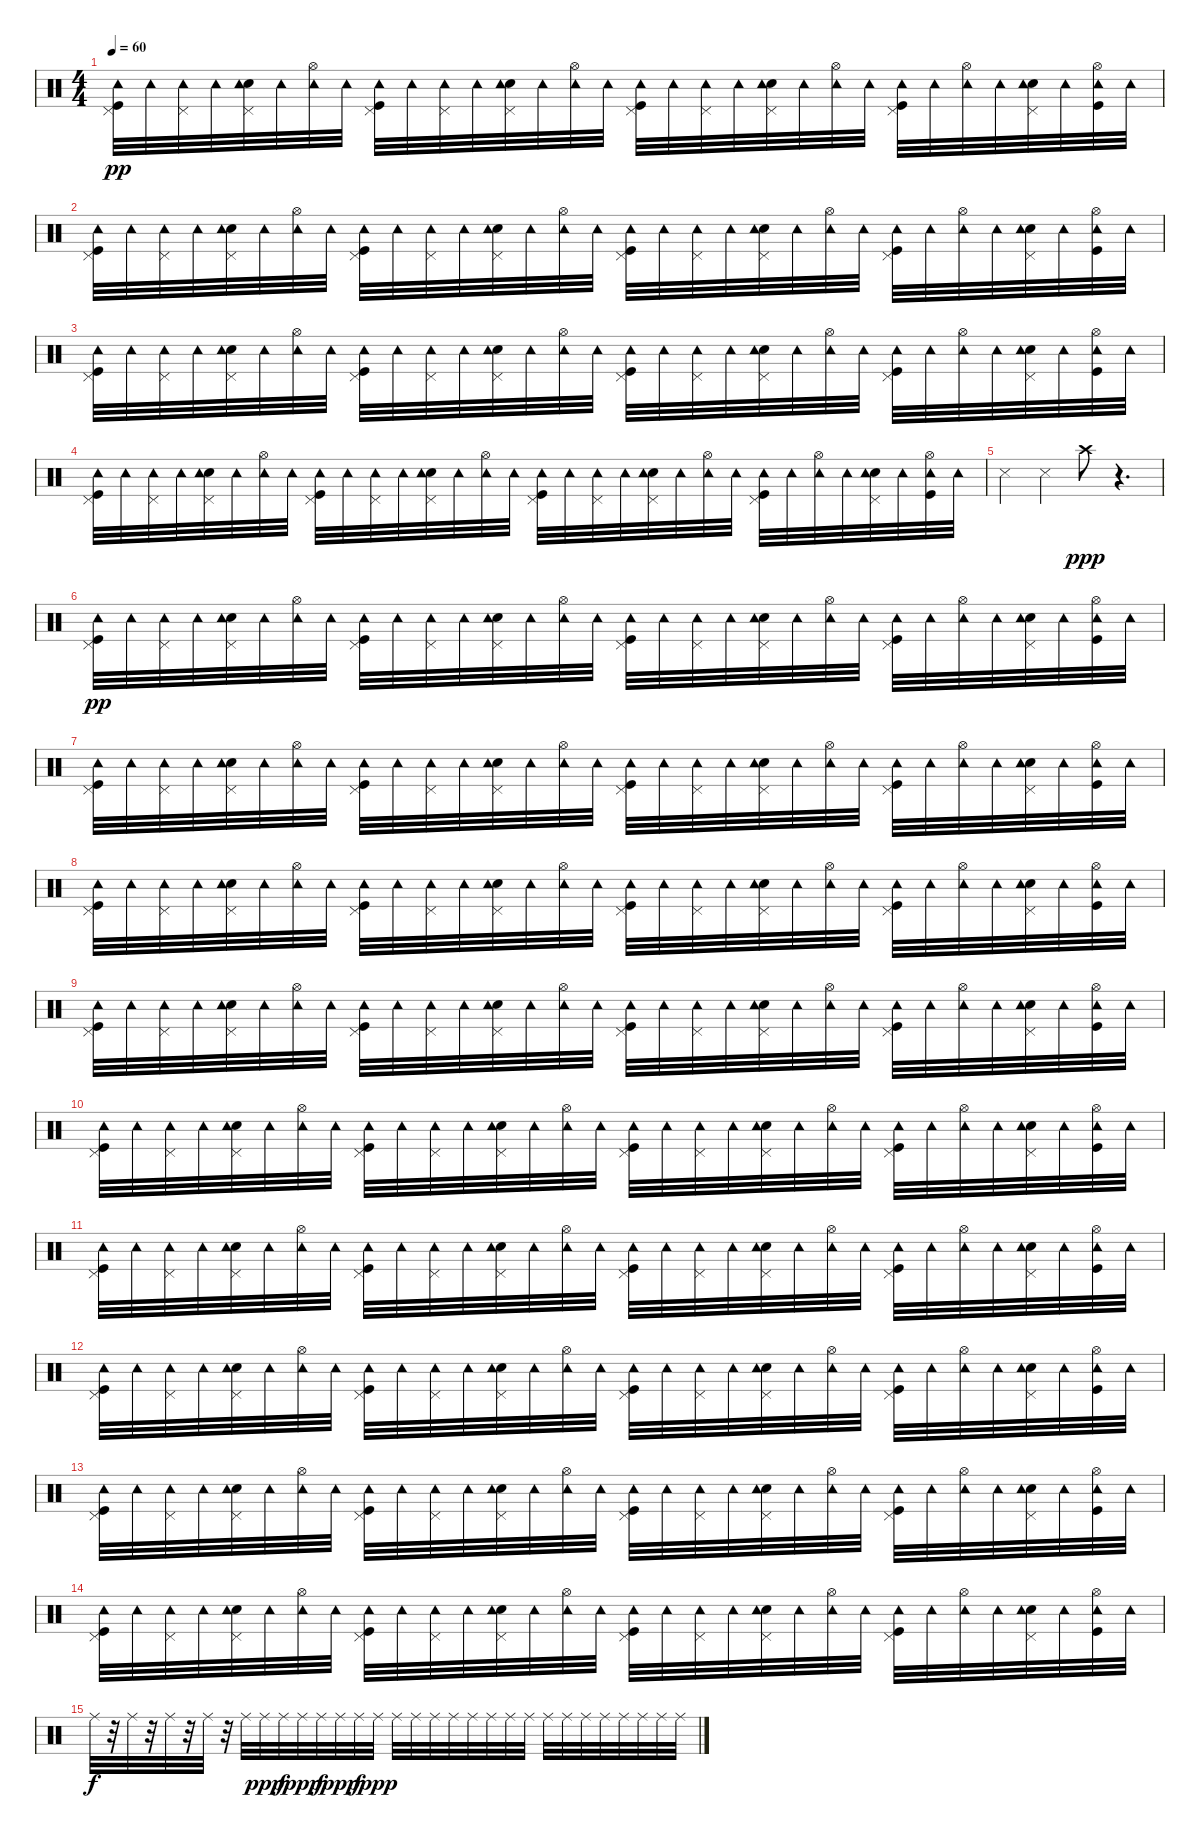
\track "" {instrument percussion}
\staff {score}
\articulation defaults
\ts (4 4)
\tempo 60
\clef neutral
\ks c
("Kick (hit)" "Pedal Hi-Hat (hit)" "Tambourine (hit)").32{dy pp} "Tambourine (hit)".32 ("Pedal Hi-Hat (hit)" "Tambourine (hit)").32 "Tambourine (hit)".32 ("Snare (hit) 2" "Pedal Hi-Hat (hit)" "Tambourine (hit)").32 "Tambourine (hit)".32 ("Hi-Hat (open)" "Tambourine (hit)").32 "Tambourine (hit)".32 ("Kick (hit)" "Pedal Hi-Hat (hit)" "Tambourine (hit)").32 "Tambourine (hit)".32 ("Pedal Hi-Hat (hit)" "Tambourine (hit)").32 "Tambourine (hit)".32 ("Snare (hit) 2" "Pedal Hi-Hat (hit)" "Tambourine (hit)").32 "Tambourine (hit)".32 ("Hi-Hat (open)" "Tambourine (hit)").32 "Tambourine (hit)".32 ("Kick (hit)" "Pedal Hi-Hat (hit)" "Tambourine (hit)").32 "Tambourine (hit)".32 ("Pedal Hi-Hat (hit)" "Tambourine (hit)").32 "Tambourine (hit)".32 ("Snare (hit) 2" "Pedal Hi-Hat (hit)" "Tambourine (hit)").32 "Tambourine (hit)".32 ("Hi-Hat (open)" "Tambourine (hit)").32 "Tambourine (hit)".32 ("Kick (hit)" "Pedal Hi-Hat (hit)" "Tambourine (hit)").32 "Tambourine (hit)".32 ("Hi-Hat (open)" "Tambourine (hit)").32 "Tambourine (hit)".32 ("Snare (hit) 2" "Pedal Hi-Hat (hit)" "Tambourine (hit)").32 "Tambourine (hit)".32 ("Kick (hit)" "Hi-Hat (open)" "Tambourine (hit)").32 "Tambourine (hit)".32 |
("Kick (hit)" "Pedal Hi-Hat (hit)" "Tambourine (hit)").32 "Tambourine (hit)".32 ("Pedal Hi-Hat (hit)" "Tambourine (hit)").32 "Tambourine (hit)".32 ("Snare (hit) 2" "Pedal Hi-Hat (hit)" "Tambourine (hit)").32 "Tambourine (hit)".32 ("Hi-Hat (open)" "Tambourine (hit)").32 "Tambourine (hit)".32 ("Kick (hit)" "Pedal Hi-Hat (hit)" "Tambourine (hit)").32 "Tambourine (hit)".32 ("Pedal Hi-Hat (hit)" "Tambourine (hit)").32 "Tambourine (hit)".32 ("Snare (hit) 2" "Pedal Hi-Hat (hit)" "Tambourine (hit)").32 "Tambourine (hit)".32 ("Hi-Hat (open)" "Tambourine (hit)").32 "Tambourine (hit)".32 ("Kick (hit)" "Pedal Hi-Hat (hit)" "Tambourine (hit)").32 "Tambourine (hit)".32 ("Pedal Hi-Hat (hit)" "Tambourine (hit)").32 "Tambourine (hit)".32 ("Snare (hit) 2" "Pedal Hi-Hat (hit)" "Tambourine (hit)").32 "Tambourine (hit)".32 ("Hi-Hat (open)" "Tambourine (hit)").32 "Tambourine (hit)".32 ("Kick (hit)" "Pedal Hi-Hat (hit)" "Tambourine (hit)").32 "Tambourine (hit)".32 ("Hi-Hat (open)" "Tambourine (hit)").32 "Tambourine (hit)".32 ("Snare (hit) 2" "Pedal Hi-Hat (hit)" "Tambourine (hit)").32 "Tambourine (hit)".32 ("Kick (hit)" "Hi-Hat (open)" "Tambourine (hit)").32 "Tambourine (hit)".32 |
("Kick (hit)" "Pedal Hi-Hat (hit)" "Tambourine (hit)").32 "Tambourine (hit)".32 ("Pedal Hi-Hat (hit)" "Tambourine (hit)").32 "Tambourine (hit)".32 ("Snare (hit) 2" "Pedal Hi-Hat (hit)" "Tambourine (hit)").32 "Tambourine (hit)".32 ("Hi-Hat (open)" "Tambourine (hit)").32 "Tambourine (hit)".32 ("Kick (hit)" "Pedal Hi-Hat (hit)" "Tambourine (hit)").32 "Tambourine (hit)".32 ("Pedal Hi-Hat (hit)" "Tambourine (hit)").32 "Tambourine (hit)".32 ("Snare (hit) 2" "Pedal Hi-Hat (hit)" "Tambourine (hit)").32 "Tambourine (hit)".32 ("Hi-Hat (open)" "Tambourine (hit)").32 "Tambourine (hit)".32 ("Kick (hit)" "Pedal Hi-Hat (hit)" "Tambourine (hit)").32 "Tambourine (hit)".32 ("Pedal Hi-Hat (hit)" "Tambourine (hit)").32 "Tambourine (hit)".32 ("Snare (hit) 2" "Pedal Hi-Hat (hit)" "Tambourine (hit)").32 "Tambourine (hit)".32 ("Hi-Hat (open)" "Tambourine (hit)").32 "Tambourine (hit)".32 ("Kick (hit)" "Pedal Hi-Hat (hit)" "Tambourine (hit)").32 "Tambourine (hit)".32 ("Hi-Hat (open)" "Tambourine (hit)").32 "Tambourine (hit)".32 ("Snare (hit) 2" "Pedal Hi-Hat (hit)" "Tambourine (hit)").32 "Tambourine (hit)".32 ("Kick (hit)" "Hi-Hat (open)" "Tambourine (hit)").32 "Tambourine (hit)".32 |
("Kick (hit)" "Pedal Hi-Hat (hit)" "Tambourine (hit)").32 "Tambourine (hit)".32 ("Pedal Hi-Hat (hit)" "Tambourine (hit)").32 "Tambourine (hit)".32 ("Snare (hit) 2" "Pedal Hi-Hat (hit)" "Tambourine (hit)").32 "Tambourine (hit)".32 ("Hi-Hat (open)" "Tambourine (hit)").32 "Tambourine (hit)".32 ("Kick (hit)" "Pedal Hi-Hat (hit)" "Tambourine (hit)").32 "Tambourine (hit)".32 ("Pedal Hi-Hat (hit)" "Tambourine (hit)").32 "Tambourine (hit)".32 ("Snare (hit) 2" "Pedal Hi-Hat (hit)" "Tambourine (hit)").32 "Tambourine (hit)".32 ("Hi-Hat (open)" "Tambourine (hit)").32 "Tambourine (hit)".32 ("Kick (hit)" "Pedal Hi-Hat (hit)" "Tambourine (hit)").32 "Tambourine (hit)".32 ("Pedal Hi-Hat (hit)" "Tambourine (hit)").32 "Tambourine (hit)".32 ("Snare (hit) 2" "Pedal Hi-Hat (hit)" "Tambourine (hit)").32 "Tambourine (hit)".32 ("Hi-Hat (open)" "Tambourine (hit)").32 "Tambourine (hit)".32 ("Kick (hit)" "Pedal Hi-Hat (hit)" "Tambourine (hit)").32 "Tambourine (hit)".32 ("Hi-Hat (open)" "Tambourine (hit)").32 "Tambourine (hit)".32 ("Snare (hit) 2" "Pedal Hi-Hat (hit)" "Tambourine (hit)").32 "Tambourine (hit)".32 ("Kick (hit)" "Hi-Hat (open)" "Tambourine (hit)").32 "Tambourine (hit)".32 |
"Snare (side stick) 3".4 "Snare (side stick) 3".4 "Crash high (hit)".8{dy ppp} r.4{d} |
("Kick (hit)" "Pedal Hi-Hat (hit)" "Tambourine (hit)").32{dy pp} "Tambourine (hit)".32 ("Pedal Hi-Hat (hit)" "Tambourine (hit)").32 "Tambourine (hit)".32 ("Snare (hit) 2" "Pedal Hi-Hat (hit)" "Tambourine (hit)").32 "Tambourine (hit)".32 ("Hi-Hat (open)" "Tambourine (hit)").32 "Tambourine (hit)".32 ("Kick (hit)" "Pedal Hi-Hat (hit)" "Tambourine (hit)").32 "Tambourine (hit)".32 ("Pedal Hi-Hat (hit)" "Tambourine (hit)").32 "Tambourine (hit)".32 ("Snare (hit) 2" "Pedal Hi-Hat (hit)" "Tambourine (hit)").32 "Tambourine (hit)".32 ("Hi-Hat (open)" "Tambourine (hit)").32 "Tambourine (hit)".32 ("Kick (hit)" "Pedal Hi-Hat (hit)" "Tambourine (hit)").32 "Tambourine (hit)".32 ("Pedal Hi-Hat (hit)" "Tambourine (hit)").32 "Tambourine (hit)".32 ("Snare (hit) 2" "Pedal Hi-Hat (hit)" "Tambourine (hit)").32 "Tambourine (hit)".32 ("Hi-Hat (open)" "Tambourine (hit)").32 "Tambourine (hit)".32 ("Kick (hit)" "Pedal Hi-Hat (hit)" "Tambourine (hit)").32 "Tambourine (hit)".32 ("Hi-Hat (open)" "Tambourine (hit)").32 "Tambourine (hit)".32 ("Snare (hit) 2" "Pedal Hi-Hat (hit)" "Tambourine (hit)").32 "Tambourine (hit)".32 ("Kick (hit)" "Hi-Hat (open)" "Tambourine (hit)").32 "Tambourine (hit)".32 |
("Kick (hit)" "Pedal Hi-Hat (hit)" "Tambourine (hit)").32 "Tambourine (hit)".32 ("Pedal Hi-Hat (hit)" "Tambourine (hit)").32 "Tambourine (hit)".32 ("Snare (hit) 2" "Pedal Hi-Hat (hit)" "Tambourine (hit)").32 "Tambourine (hit)".32 ("Hi-Hat (open)" "Tambourine (hit)").32 "Tambourine (hit)".32 ("Kick (hit)" "Pedal Hi-Hat (hit)" "Tambourine (hit)").32 "Tambourine (hit)".32 ("Pedal Hi-Hat (hit)" "Tambourine (hit)").32 "Tambourine (hit)".32 ("Snare (hit) 2" "Pedal Hi-Hat (hit)" "Tambourine (hit)").32 "Tambourine (hit)".32 ("Hi-Hat (open)" "Tambourine (hit)").32 "Tambourine (hit)".32 ("Kick (hit)" "Pedal Hi-Hat (hit)" "Tambourine (hit)").32 "Tambourine (hit)".32 ("Pedal Hi-Hat (hit)" "Tambourine (hit)").32 "Tambourine (hit)".32 ("Snare (hit) 2" "Pedal Hi-Hat (hit)" "Tambourine (hit)").32 "Tambourine (hit)".32 ("Hi-Hat (open)" "Tambourine (hit)").32 "Tambourine (hit)".32 ("Kick (hit)" "Pedal Hi-Hat (hit)" "Tambourine (hit)").32 "Tambourine (hit)".32 ("Hi-Hat (open)" "Tambourine (hit)").32 "Tambourine (hit)".32 ("Snare (hit) 2" "Pedal Hi-Hat (hit)" "Tambourine (hit)").32 "Tambourine (hit)".32 ("Kick (hit)" "Hi-Hat (open)" "Tambourine (hit)").32 "Tambourine (hit)".32 |
("Kick (hit)" "Pedal Hi-Hat (hit)" "Tambourine (hit)").32 "Tambourine (hit)".32 ("Pedal Hi-Hat (hit)" "Tambourine (hit)").32 "Tambourine (hit)".32 ("Snare (hit) 2" "Pedal Hi-Hat (hit)" "Tambourine (hit)").32 "Tambourine (hit)".32 ("Hi-Hat (open)" "Tambourine (hit)").32 "Tambourine (hit)".32 ("Kick (hit)" "Pedal Hi-Hat (hit)" "Tambourine (hit)").32 "Tambourine (hit)".32 ("Pedal Hi-Hat (hit)" "Tambourine (hit)").32 "Tambourine (hit)".32 ("Snare (hit) 2" "Pedal Hi-Hat (hit)" "Tambourine (hit)").32 "Tambourine (hit)".32 ("Hi-Hat (open)" "Tambourine (hit)").32 "Tambourine (hit)".32 ("Kick (hit)" "Pedal Hi-Hat (hit)" "Tambourine (hit)").32 "Tambourine (hit)".32 ("Pedal Hi-Hat (hit)" "Tambourine (hit)").32 "Tambourine (hit)".32 ("Snare (hit) 2" "Pedal Hi-Hat (hit)" "Tambourine (hit)").32 "Tambourine (hit)".32 ("Hi-Hat (open)" "Tambourine (hit)").32 "Tambourine (hit)".32 ("Kick (hit)" "Pedal Hi-Hat (hit)" "Tambourine (hit)").32 "Tambourine (hit)".32 ("Hi-Hat (open)" "Tambourine (hit)").32 "Tambourine (hit)".32 ("Snare (hit) 2" "Pedal Hi-Hat (hit)" "Tambourine (hit)").32 "Tambourine (hit)".32 ("Kick (hit)" "Hi-Hat (open)" "Tambourine (hit)").32 "Tambourine (hit)".32 |
("Kick (hit)" "Pedal Hi-Hat (hit)" "Tambourine (hit)").32 "Tambourine (hit)".32 ("Pedal Hi-Hat (hit)" "Tambourine (hit)").32 "Tambourine (hit)".32 ("Snare (hit) 2" "Pedal Hi-Hat (hit)" "Tambourine (hit)").32 "Tambourine (hit)".32 ("Hi-Hat (open)" "Tambourine (hit)").32 "Tambourine (hit)".32 ("Kick (hit)" "Pedal Hi-Hat (hit)" "Tambourine (hit)").32 "Tambourine (hit)".32 ("Pedal Hi-Hat (hit)" "Tambourine (hit)").32 "Tambourine (hit)".32 ("Snare (hit) 2" "Pedal Hi-Hat (hit)" "Tambourine (hit)").32 "Tambourine (hit)".32 ("Hi-Hat (open)" "Tambourine (hit)").32 "Tambourine (hit)".32 ("Kick (hit)" "Pedal Hi-Hat (hit)" "Tambourine (hit)").32 "Tambourine (hit)".32 ("Pedal Hi-Hat (hit)" "Tambourine (hit)").32 "Tambourine (hit)".32 ("Snare (hit) 2" "Pedal Hi-Hat (hit)" "Tambourine (hit)").32 "Tambourine (hit)".32 ("Hi-Hat (open)" "Tambourine (hit)").32 "Tambourine (hit)".32 ("Kick (hit)" "Pedal Hi-Hat (hit)" "Tambourine (hit)").32 "Tambourine (hit)".32 ("Hi-Hat (open)" "Tambourine (hit)").32 "Tambourine (hit)".32 ("Snare (hit) 2" "Pedal Hi-Hat (hit)" "Tambourine (hit)").32 "Tambourine (hit)".32 ("Kick (hit)" "Hi-Hat (open)" "Tambourine (hit)").32 "Tambourine (hit)".32 |
("Kick (hit)" "Pedal Hi-Hat (hit)" "Tambourine (hit)").32 "Tambourine (hit)".32 ("Pedal Hi-Hat (hit)" "Tambourine (hit)").32 "Tambourine (hit)".32 ("Snare (hit) 2" "Pedal Hi-Hat (hit)" "Tambourine (hit)").32 "Tambourine (hit)".32 ("Hi-Hat (open)" "Tambourine (hit)").32 "Tambourine (hit)".32 ("Kick (hit)" "Pedal Hi-Hat (hit)" "Tambourine (hit)").32 "Tambourine (hit)".32 ("Pedal Hi-Hat (hit)" "Tambourine (hit)").32 "Tambourine (hit)".32 ("Snare (hit) 2" "Pedal Hi-Hat (hit)" "Tambourine (hit)").32 "Tambourine (hit)".32 ("Hi-Hat (open)" "Tambourine (hit)").32 "Tambourine (hit)".32 ("Kick (hit)" "Pedal Hi-Hat (hit)" "Tambourine (hit)").32 "Tambourine (hit)".32 ("Pedal Hi-Hat (hit)" "Tambourine (hit)").32 "Tambourine (hit)".32 ("Snare (hit) 2" "Pedal Hi-Hat (hit)" "Tambourine (hit)").32 "Tambourine (hit)".32 ("Hi-Hat (open)" "Tambourine (hit)").32 "Tambourine (hit)".32 ("Kick (hit)" "Pedal Hi-Hat (hit)" "Tambourine (hit)").32 "Tambourine (hit)".32 ("Hi-Hat (open)" "Tambourine (hit)").32 "Tambourine (hit)".32 ("Snare (hit) 2" "Pedal Hi-Hat (hit)" "Tambourine (hit)").32 "Tambourine (hit)".32 ("Kick (hit)" "Hi-Hat (open)" "Tambourine (hit)").32 "Tambourine (hit)".32 |
("Kick (hit)" "Pedal Hi-Hat (hit)" "Tambourine (hit)").32 "Tambourine (hit)".32 ("Pedal Hi-Hat (hit)" "Tambourine (hit)").32 "Tambourine (hit)".32 ("Snare (hit) 2" "Pedal Hi-Hat (hit)" "Tambourine (hit)").32 "Tambourine (hit)".32 ("Hi-Hat (open)" "Tambourine (hit)").32 "Tambourine (hit)".32 ("Kick (hit)" "Pedal Hi-Hat (hit)" "Tambourine (hit)").32 "Tambourine (hit)".32 ("Pedal Hi-Hat (hit)" "Tambourine (hit)").32 "Tambourine (hit)".32 ("Snare (hit) 2" "Pedal Hi-Hat (hit)" "Tambourine (hit)").32 "Tambourine (hit)".32 ("Hi-Hat (open)" "Tambourine (hit)").32 "Tambourine (hit)".32 ("Kick (hit)" "Pedal Hi-Hat (hit)" "Tambourine (hit)").32 "Tambourine (hit)".32 ("Pedal Hi-Hat (hit)" "Tambourine (hit)").32 "Tambourine (hit)".32 ("Snare (hit) 2" "Pedal Hi-Hat (hit)" "Tambourine (hit)").32 "Tambourine (hit)".32 ("Hi-Hat (open)" "Tambourine (hit)").32 "Tambourine (hit)".32 ("Kick (hit)" "Pedal Hi-Hat (hit)" "Tambourine (hit)").32 "Tambourine (hit)".32 ("Hi-Hat (open)" "Tambourine (hit)").32 "Tambourine (hit)".32 ("Snare (hit) 2" "Pedal Hi-Hat (hit)" "Tambourine (hit)").32 "Tambourine (hit)".32 ("Kick (hit)" "Hi-Hat (open)" "Tambourine (hit)").32 "Tambourine (hit)".32 |
("Kick (hit)" "Pedal Hi-Hat (hit)" "Tambourine (hit)").32 "Tambourine (hit)".32 ("Pedal Hi-Hat (hit)" "Tambourine (hit)").32 "Tambourine (hit)".32 ("Snare (hit) 2" "Pedal Hi-Hat (hit)" "Tambourine (hit)").32 "Tambourine (hit)".32 ("Hi-Hat (open)" "Tambourine (hit)").32 "Tambourine (hit)".32 ("Kick (hit)" "Pedal Hi-Hat (hit)" "Tambourine (hit)").32 "Tambourine (hit)".32 ("Pedal Hi-Hat (hit)" "Tambourine (hit)").32 "Tambourine (hit)".32 ("Snare (hit) 2" "Pedal Hi-Hat (hit)" "Tambourine (hit)").32 "Tambourine (hit)".32 ("Hi-Hat (open)" "Tambourine (hit)").32 "Tambourine (hit)".32 ("Kick (hit)" "Pedal Hi-Hat (hit)" "Tambourine (hit)").32 "Tambourine (hit)".32 ("Pedal Hi-Hat (hit)" "Tambourine (hit)").32 "Tambourine (hit)".32 ("Snare (hit) 2" "Pedal Hi-Hat (hit)" "Tambourine (hit)").32 "Tambourine (hit)".32 ("Hi-Hat (open)" "Tambourine (hit)").32 "Tambourine (hit)".32 ("Kick (hit)" "Pedal Hi-Hat (hit)" "Tambourine (hit)").32 "Tambourine (hit)".32 ("Hi-Hat (open)" "Tambourine (hit)").32 "Tambourine (hit)".32 ("Snare (hit) 2" "Pedal Hi-Hat (hit)" "Tambourine (hit)").32 "Tambourine (hit)".32 ("Kick (hit)" "Hi-Hat (open)" "Tambourine (hit)").32 "Tambourine (hit)".32 |
("Kick (hit)" "Pedal Hi-Hat (hit)" "Tambourine (hit)").32 "Tambourine (hit)".32 ("Pedal Hi-Hat (hit)" "Tambourine (hit)").32 "Tambourine (hit)".32 ("Snare (hit) 2" "Pedal Hi-Hat (hit)" "Tambourine (hit)").32 "Tambourine (hit)".32 ("Hi-Hat (open)" "Tambourine (hit)").32 "Tambourine (hit)".32 ("Kick (hit)" "Pedal Hi-Hat (hit)" "Tambourine (hit)").32 "Tambourine (hit)".32 ("Pedal Hi-Hat (hit)" "Tambourine (hit)").32 "Tambourine (hit)".32 ("Snare (hit) 2" "Pedal Hi-Hat (hit)" "Tambourine (hit)").32 "Tambourine (hit)".32 ("Hi-Hat (open)" "Tambourine (hit)").32 "Tambourine (hit)".32 ("Kick (hit)" "Pedal Hi-Hat (hit)" "Tambourine (hit)").32 "Tambourine (hit)".32 ("Pedal Hi-Hat (hit)" "Tambourine (hit)").32 "Tambourine (hit)".32 ("Snare (hit) 2" "Pedal Hi-Hat (hit)" "Tambourine (hit)").32 "Tambourine (hit)".32 ("Hi-Hat (open)" "Tambourine (hit)").32 "Tambourine (hit)".32 ("Kick (hit)" "Pedal Hi-Hat (hit)" "Tambourine (hit)").32 "Tambourine (hit)".32 ("Hi-Hat (open)" "Tambourine (hit)").32 "Tambourine (hit)".32 ("Snare (hit) 2" "Pedal Hi-Hat (hit)" "Tambourine (hit)").32 "Tambourine (hit)".32 ("Kick (hit)" "Hi-Hat (open)" "Tambourine (hit)").32 "Tambourine (hit)".32 |
("Kick (hit)" "Pedal Hi-Hat (hit)" "Tambourine (hit)").32 "Tambourine (hit)".32 ("Pedal Hi-Hat (hit)" "Tambourine (hit)").32 "Tambourine (hit)".32 ("Snare (hit) 2" "Pedal Hi-Hat (hit)" "Tambourine (hit)").32 "Tambourine (hit)".32 ("Hi-Hat (open)" "Tambourine (hit)").32 "Tambourine (hit)".32 ("Kick (hit)" "Pedal Hi-Hat (hit)" "Tambourine (hit)").32 "Tambourine (hit)".32 ("Pedal Hi-Hat (hit)" "Tambourine (hit)").32 "Tambourine (hit)".32 ("Snare (hit) 2" "Pedal Hi-Hat (hit)" "Tambourine (hit)").32 "Tambourine (hit)".32 ("Hi-Hat (open)" "Tambourine (hit)").32 "Tambourine (hit)".32 ("Kick (hit)" "Pedal Hi-Hat (hit)" "Tambourine (hit)").32 "Tambourine (hit)".32 ("Pedal Hi-Hat (hit)" "Tambourine (hit)").32 "Tambourine (hit)".32 ("Snare (hit) 2" "Pedal Hi-Hat (hit)" "Tambourine (hit)").32 "Tambourine (hit)".32 ("Hi-Hat (open)" "Tambourine (hit)").32 "Tambourine (hit)".32 ("Kick (hit)" "Pedal Hi-Hat (hit)" "Tambourine (hit)").32 "Tambourine (hit)".32 ("Hi-Hat (open)" "Tambourine (hit)").32 "Tambourine (hit)".32 ("Snare (hit) 2" "Pedal Hi-Hat (hit)" "Tambourine (hit)").32 "Tambourine (hit)".32 ("Kick (hit)" "Hi-Hat (open)" "Tambourine (hit)").32 "Tambourine (hit)".32 |
"Ride (middle)".32{dy f} r.32 "Ride (middle)".32 r.32 "Ride (middle)".32 r.32 "Ride (middle)".32 r.32 "Ride (middle)".32 "Ride (middle)".32{dy ppp} "Ride (middle)".32{dy f} "Ride (middle)".32{dy ppp} "Ride (middle)".32{dy f} "Ride (middle)".32{dy ppp} "Ride (middle)".32{dy f} "Ride (middle)".32{dy ppp} "Ride (middle)".32 "Ride (middle)".32 "Ride (middle)".32 "Ride (middle)".32 "Ride (middle)".32 "Ride (middle)".32 "Ride (middle)".32 "Ride (middle)".32 "Ride (middle)".32 "Ride (middle)".32 "Ride (middle)".32 "Ride (middle)".32 "Ride (middle)".32 "Ride (middle)".32 "Ride (middle)".32 "Ride (middle)".32
